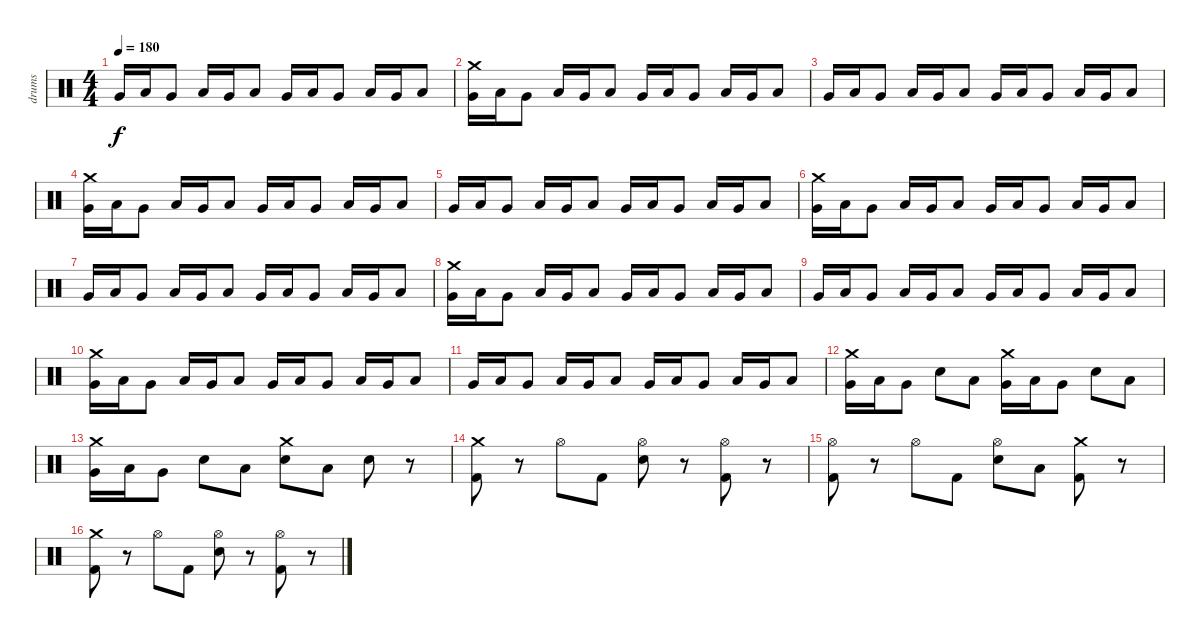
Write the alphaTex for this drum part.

\track ("drums" "drums") {instrument percussion}
\staff {score}
\articulation defaults
\ts (4 4)
\tempo 180
\clef neutral
\ks c "Very Low Tom (hit)".16{dy f} "Low Tom (hit)".16 "Very Low Tom (hit)".8 "Low Floor Tom (hit)".16 "Very Low Tom (hit)".16 "Low Floor Tom (hit)".8 "Very Low Tom (hit)".16 "Low Tom (hit)".16 "Very Low Tom (hit)".8 "Low Floor Tom (hit)".16 "Very Low Tom (hit)".16 "Low Floor Tom (hit)".8
|
("Crash medium (hit)" "Very Low Tom (hit)").16 "Low Tom (hit)".16 "Very Low Tom (hit)".8 "Low Floor Tom (hit)".16 "Very Low Tom (hit)".16 "Low Floor Tom (hit)".8 "Very Low Tom (hit)".16 "Low Tom (hit)".16 "Very Low Tom (hit)".8 "Low Floor Tom (hit)".16 "Very Low Tom (hit)".16 "Low Floor Tom (hit)".8 |
"Very Low Tom (hit)".16 "Low Tom (hit)".16 "Very Low Tom (hit)".8 "Low Floor Tom (hit)".16 "Very Low Tom (hit)".16 "Low Floor Tom (hit)".8 "Very Low Tom (hit)".16 "Low Tom (hit)".16 "Very Low Tom (hit)".8 "Low Floor Tom (hit)".16 "Very Low Tom (hit)".16 "Low Floor Tom (hit)".8 |
("Crash medium (hit)" "Very Low Tom (hit)").16 "Low Tom (hit)".16 "Very Low Tom (hit)".8 "Low Floor Tom (hit)".16 "Very Low Tom (hit)".16 "Low Floor Tom (hit)".8 "Very Low Tom (hit)".16 "Low Tom (hit)".16 "Very Low Tom (hit)".8 "Low Floor Tom (hit)".16 "Very Low Tom (hit)".16 "Low Floor Tom (hit)".8 |
"Very Low Tom (hit)".16 "Low Tom (hit)".16 "Very Low Tom (hit)".8 "Low Floor Tom (hit)".16 "Very Low Tom (hit)".16 "Low Floor Tom (hit)".8 "Very Low Tom (hit)".16 "Low Tom (hit)".16 "Very Low Tom (hit)".8 "Low Floor Tom (hit)".16 "Very Low Tom (hit)".16 "Low Floor Tom (hit)".8 |
("Crash medium (hit)" "Very Low Tom (hit)").16 "Low Tom (hit)".16 "Very Low Tom (hit)".8 "Low Floor Tom (hit)".16 "Very Low Tom (hit)".16 "Low Floor Tom (hit)".8 "Very Low Tom (hit)".16 "Low Tom (hit)".16 "Very Low Tom (hit)".8 "Low Floor Tom (hit)".16 "Very Low Tom (hit)".16 "Low Floor Tom (hit)".8 |
"Very Low Tom (hit)".16 "Low Tom (hit)".16 "Very Low Tom (hit)".8 "Low Floor Tom (hit)".16 "Very Low Tom (hit)".16 "Low Floor Tom (hit)".8 "Very Low Tom (hit)".16 "Low Tom (hit)".16 "Very Low Tom (hit)".8 "Low Floor Tom (hit)".16 "Very Low Tom (hit)".16 "Low Floor Tom (hit)".8 |
("Crash medium (hit)" "Very Low Tom (hit)").16 "Low Tom (hit)".16 "Very Low Tom (hit)".8 "Low Floor Tom (hit)".16 "Very Low Tom (hit)".16 "Low Floor Tom (hit)".8 "Very Low Tom (hit)".16 "Low Tom (hit)".16 "Very Low Tom (hit)".8 "Low Floor Tom (hit)".16 "Very Low Tom (hit)".16 "Low Floor Tom (hit)".8 |
"Very Low Tom (hit)".16 "Low Tom (hit)".16 "Very Low Tom (hit)".8 "Low Floor Tom (hit)".16 "Very Low Tom (hit)".16 "Low Floor Tom (hit)".8 "Very Low Tom (hit)".16 "Low Tom (hit)".16 "Very Low Tom (hit)".8 "Low Floor Tom (hit)".16 "Very Low Tom (hit)".16 "Low Floor Tom (hit)".8 |
("Crash medium (hit)" "Very Low Tom (hit)").16 "Low Tom (hit)".16 "Very Low Tom (hit)".8 "Low Floor Tom (hit)".16 "Very Low Tom (hit)".16 "Low Floor Tom (hit)".8 "Very Low Tom (hit)".16 "Low Tom (hit)".16 "Very Low Tom (hit)".8 "Low Floor Tom (hit)".16 "Very Low Tom (hit)".16 "Low Floor Tom (hit)".8 |
"Very Low Tom (hit)".16 "Low Tom (hit)".16 "Very Low Tom (hit)".8 "Low Floor Tom (hit)".16 "Very Low Tom (hit)".16 "Low Floor Tom (hit)".8 "Very Low Tom (hit)".16 "Low Tom (hit)".16 "Very Low Tom (hit)".8 "Low Floor Tom (hit)".16 "Very Low Tom (hit)".16 "Low Floor Tom (hit)".8 |
("Crash medium (hit)" "Very Low Tom (hit)").16 "Low Tom (hit)".16 "Very Low Tom (hit)".8 "Snare (hit) 2".8 "Low Tom (hit)".8 ("Crash medium (hit)" "Very Low Tom (hit)").16 "Low Tom (hit)".16 "Very Low Tom (hit)".8 "Snare (hit) 2".8 "Low Tom (hit)".8 |
("Crash medium (hit)" "Very Low Tom (hit)").16 "Low Tom (hit)".16 "Very Low Tom (hit)".8 "Snare (hit) 2".8 "Low Tom (hit)".8 ("Crash medium (hit)" "Snare (hit) 2").8 "Low Tom (hit)".8 "Snare (hit) 2".8 r.8 |
("Crash medium (hit)" "Kick (hit) 2").8 r.8 "Hi-Hat (open)".8 "Kick (hit) 2".8 ("Hi-Hat (open)" "Snare (hit) 2").8 r.8 ("Hi-Hat (open)" "Kick (hit) 2").8 r.8 |
("Hi-Hat (open)" "Kick (hit) 2").8 r.8 "Hi-Hat (open)".8 "Kick (hit) 2".8 ("Hi-Hat (open)" "Snare (hit) 2").8 "Low Tom (hit)".8 ("Crash medium (hit)" "Kick (hit) 2").8 r.8 |
("Crash medium (hit)" "Kick (hit) 2").8 r.8 "Hi-Hat (open)".8 "Kick (hit) 2".8 ("Hi-Hat (open)" "Snare (hit) 2").8 r.8 ("Hi-Hat (open)" "Kick (hit) 2").8 r.8
